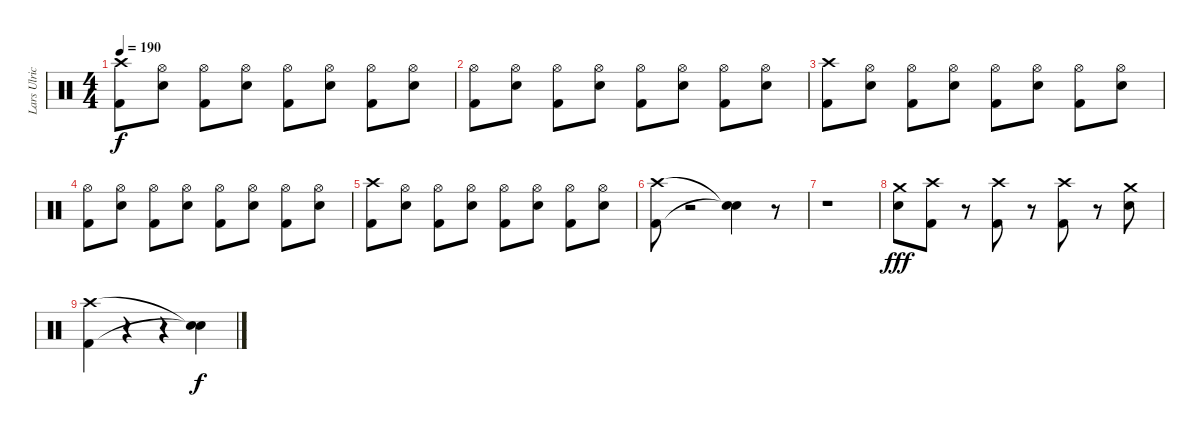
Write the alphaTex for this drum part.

\track ("Lars Ulrich" "Lars Ulric") {instrument percussion}
\staff {score}
\articulation defaults
\ts (4 4)
\tempo 190
\clef neutral
\ks c
("Crash high (hit)" "Kick (hit) 2").8{dy f} ("Hi-Hat (open)" "Snare (hit) 2").8 ("Hi-Hat (open)" "Kick (hit) 2").8 ("Hi-Hat (open)" "Snare (hit) 2").8 ("Hi-Hat (open)" "Kick (hit) 2").8 ("Hi-Hat (open)" "Snare (hit) 2").8 ("Hi-Hat (open)" "Kick (hit) 2").8 ("Hi-Hat (open)" "Snare (hit) 2").8 |
("Hi-Hat (open)" "Kick (hit) 2").8 ("Hi-Hat (open)" "Snare (hit) 2").8 ("Hi-Hat (open)" "Kick (hit) 2").8 ("Hi-Hat (open)" "Snare (hit) 2").8 ("Hi-Hat (open)" "Kick (hit) 2").8 ("Hi-Hat (open)" "Snare (hit) 2").8 ("Hi-Hat (open)" "Kick (hit) 2").8 ("Hi-Hat (open)" "Snare (hit) 2").8 |
("Crash high (hit)" "Kick (hit) 2").8 ("Hi-Hat (open)" "Snare (hit) 2").8 ("Hi-Hat (open)" "Kick (hit) 2").8 ("Hi-Hat (open)" "Snare (hit) 2").8 ("Hi-Hat (open)" "Kick (hit) 2").8 ("Hi-Hat (open)" "Snare (hit) 2").8 ("Hi-Hat (open)" "Kick (hit) 2").8 ("Hi-Hat (open)" "Snare (hit) 2").8 |
("Hi-Hat (open)" "Kick (hit) 2").8 ("Hi-Hat (open)" "Snare (hit) 2").8 ("Hi-Hat (open)" "Kick (hit) 2").8 ("Hi-Hat (open)" "Snare (hit) 2").8 ("Hi-Hat (open)" "Kick (hit) 2").8 ("Hi-Hat (open)" "Snare (hit) 2").8 ("Hi-Hat (open)" "Kick (hit) 2").8 ("Hi-Hat (open)" "Snare (hit) 2").8 |
("Crash high (hit)" "Kick (hit) 2").8 ("Hi-Hat (open)" "Snare (hit) 2").8 ("Hi-Hat (open)" "Kick (hit) 2").8 ("Hi-Hat (open)" "Snare (hit) 2").8 ("Hi-Hat (open)" "Kick (hit) 2").8 ("Hi-Hat (open)" "Snare (hit) 2").8 ("Hi-Hat (open)" "Kick (hit) 2").8 ("Hi-Hat (open)" "Snare (hit) 2").8 |
("Crash high (hit)" "Kick (hit) 2").8 r.2 ("Snare (hit)"{t} "Snare (hit)"{t}).4 r.8 |
r.1 |
("Crash medium (hit)" "Snare (hit) 2").8{dy fff} ("Crash high (hit)" "Kick (hit) 2").8 r.8 ("Crash high (hit)" "Kick (hit) 2").8 r.8 ("Crash high (hit)" "Kick (hit) 2").8 r.8 ("Crash medium (hit)" "Snare (hit) 2").8 |
("Crash high (hit)" "Kick (hit) 2").4 r.4 r.4 ("Snare (hit)"{t} "Snare (hit)"{t}).4{dy f}
